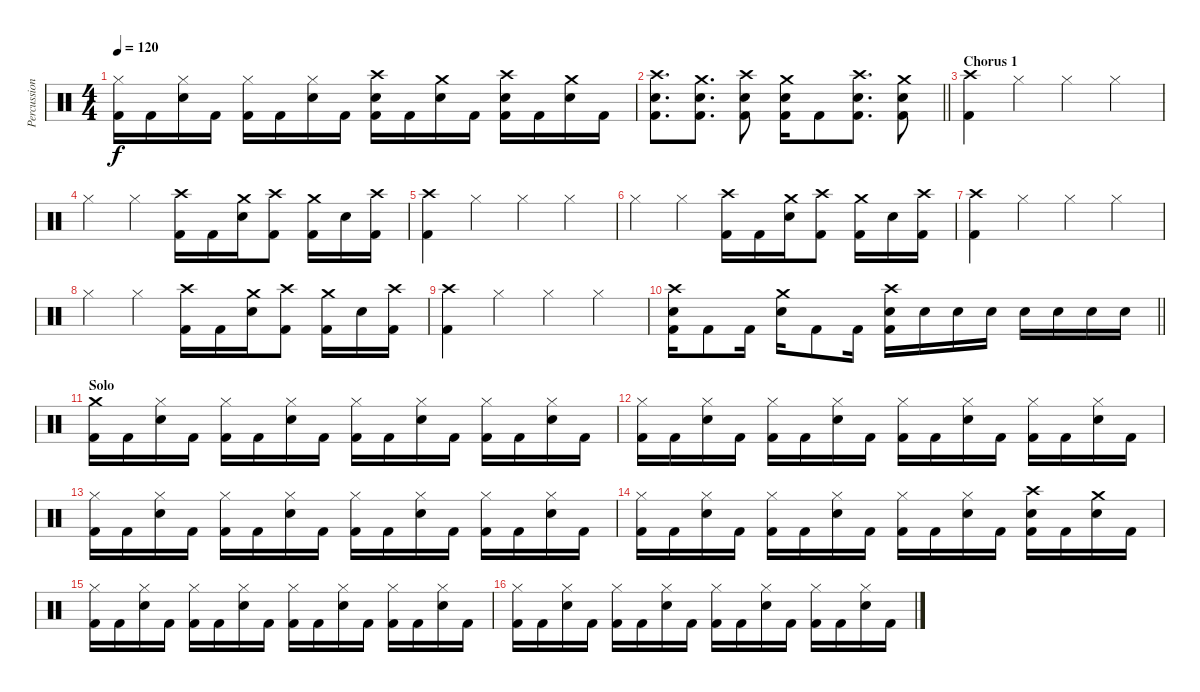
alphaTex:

\track ("Percussion" "Percussion") {instrument percussion}
\staff {score}
\articulation defaults
\ts (4 4)
\tempo 120
\clef neutral
\ks c
("Hi-Hat (closed)" "Kick (hit) 2").16{dy f} "Kick (hit) 2".16 ("Electric Snare (hit)" "Hi-Hat (closed)").16 "Kick (hit) 2".16 ("Hi-Hat (closed)" "Kick (hit) 2").16 "Kick (hit) 2".16 ("Electric Snare (hit)" "Hi-Hat (closed)").16 "Kick (hit) 2".16 ("Crash high (hit)" "Electric Snare (hit)" "Kick (hit) 2").16 "Kick (hit) 2".16 ("Crash medium (hit)" "Electric Snare (hit)").16 "Kick (hit) 2".16 ("Crash high (hit)" "Electric Snare (hit)" "Kick (hit) 2").16 "Kick (hit) 2".16 ("Crash medium (hit)" "Electric Snare (hit)").16 "Kick (hit) 2".16 |
\barLineRight lightlight
("Crash high (hit)" "Electric Snare (hit)" "Kick (hit) 2").8{d} ("Crash medium (hit)" "Electric Snare (hit)" "Kick (hit) 2").8{d} ("Crash high (hit)" "Electric Snare (hit)" "Kick (hit) 2").8 ("Crash medium (hit)" "Electric Snare (hit)" "Kick (hit) 2").16 "Kick (hit) 2".8 ("Crash high (hit)" "Electric Snare (hit)" "Kick (hit) 2").8{d} ("Crash medium (hit)" "Electric Snare (hit)" "Kick (hit) 2").8 |
\section ("" "Chorus 1")
("Crash high (hit)" "Kick (hit) 2").4 "Hi-Hat (closed)".4 "Hi-Hat (closed)".4 "Hi-Hat (closed)".4 |
"Hi-Hat (closed)".4 "Hi-Hat (closed)".4 ("Crash high (hit)" "Kick (hit) 2").16 "Kick (hit) 2".16 ("Crash medium (hit)" "Electric Snare (hit)").16 ("Crash high (hit)" "Kick (hit) 2").8 ("Crash medium (hit)" "Kick (hit) 2").16 "Electric Snare (hit)".16 ("Crash high (hit)" "Kick (hit) 2").16 |
("Crash high (hit)" "Kick (hit) 2").4 "Hi-Hat (closed)".4 "Hi-Hat (closed)".4 "Hi-Hat (closed)".4 |
"Hi-Hat (closed)".4 "Hi-Hat (closed)".4 ("Crash high (hit)" "Kick (hit) 2").16 "Kick (hit) 2".16 ("Crash medium (hit)" "Electric Snare (hit)").16 ("Crash high (hit)" "Kick (hit) 2").8 ("Crash medium (hit)" "Kick (hit) 2").16 "Electric Snare (hit)".16 ("Crash high (hit)" "Kick (hit) 2").16 |
("Crash high (hit)" "Kick (hit) 2").4 "Hi-Hat (closed)".4 "Hi-Hat (closed)".4 "Hi-Hat (closed)".4 |
"Hi-Hat (closed)".4 "Hi-Hat (closed)".4 ("Crash high (hit)" "Kick (hit) 2").16 "Kick (hit) 2".16 ("Crash medium (hit)" "Electric Snare (hit)").16 ("Crash high (hit)" "Kick (hit) 2").8 ("Crash medium (hit)" "Kick (hit) 2").16 "Electric Snare (hit)".16 ("Crash high (hit)" "Kick (hit) 2").16 |
("Crash high (hit)" "Kick (hit) 2").4 "Hi-Hat (closed)".4 "Hi-Hat (closed)".4 "Hi-Hat (closed)".4 |
\barLineRight lightlight
("Crash high (hit)" "Electric Snare (hit)" "Kick (hit) 2").16 "Kick (hit) 2".8 "Kick (hit) 2".16 ("Crash medium (hit)" "Electric Snare (hit)").16 "Kick (hit) 2".8 "Kick (hit) 2".16 ("Crash high (hit)" "Electric Snare (hit)" "Kick (hit) 2").16 "Electric Snare (hit)".16 "Electric Snare (hit)".16 "Electric Snare (hit)".16 "Electric Snare (hit)".16 "Electric Snare (hit)".16 "Electric Snare (hit)".16 "Electric Snare (hit)".16 |
\section ("" "Solo")
("Crash medium (hit)" "Kick (hit) 2").16 "Kick (hit) 2".16 ("Electric Snare (hit)" "Hi-Hat (closed)").16 "Kick (hit) 2".16 ("Hi-Hat (closed)" "Kick (hit) 2").16 "Kick (hit) 2".16 ("Electric Snare (hit)" "Hi-Hat (closed)").16 "Kick (hit) 2".16 ("Hi-Hat (closed)" "Kick (hit) 2").16 "Kick (hit) 2".16 ("Electric Snare (hit)" "Hi-Hat (closed)").16 "Kick (hit) 2".16 ("Hi-Hat (closed)" "Kick (hit) 2").16 "Kick (hit) 2".16 ("Electric Snare (hit)" "Hi-Hat (closed)").16 "Kick (hit) 2".16 |
("Hi-Hat (closed)" "Kick (hit) 2").16 "Kick (hit) 2".16 ("Electric Snare (hit)" "Hi-Hat (closed)").16 "Kick (hit) 2".16 ("Hi-Hat (closed)" "Kick (hit) 2").16 "Kick (hit) 2".16 ("Electric Snare (hit)" "Hi-Hat (closed)").16 "Kick (hit) 2".16 ("Hi-Hat (closed)" "Kick (hit) 2").16 "Kick (hit) 2".16 ("Electric Snare (hit)" "Hi-Hat (closed)").16 "Kick (hit) 2".16 ("Hi-Hat (closed)" "Kick (hit) 2").16 "Kick (hit) 2".16 ("Electric Snare (hit)" "Hi-Hat (closed)").16 "Kick (hit) 2".16 |
("Hi-Hat (closed)" "Kick (hit) 2").16 "Kick (hit) 2".16 ("Electric Snare (hit)" "Hi-Hat (closed)").16 "Kick (hit) 2".16 ("Hi-Hat (closed)" "Kick (hit) 2").16 "Kick (hit) 2".16 ("Electric Snare (hit)" "Hi-Hat (closed)").16 "Kick (hit) 2".16 ("Hi-Hat (closed)" "Kick (hit) 2").16 "Kick (hit) 2".16 ("Electric Snare (hit)" "Hi-Hat (closed)").16 "Kick (hit) 2".16 ("Hi-Hat (closed)" "Kick (hit) 2").16 "Kick (hit) 2".16 ("Electric Snare (hit)" "Hi-Hat (closed)").16 "Kick (hit) 2".16 |
("Hi-Hat (closed)" "Kick (hit) 2").16 "Kick (hit) 2".16 ("Electric Snare (hit)" "Hi-Hat (closed)").16 "Kick (hit) 2".16 ("Hi-Hat (closed)" "Kick (hit) 2").16 "Kick (hit) 2".16 ("Electric Snare (hit)" "Hi-Hat (closed)").16 "Kick (hit) 2".16 ("Hi-Hat (closed)" "Kick (hit) 2").16 "Kick (hit) 2".16 ("Electric Snare (hit)" "Hi-Hat (closed)").16 "Kick (hit) 2".16 ("Crash high (hit)" "Electric Snare (hit)" "Kick (hit) 2").16 "Kick (hit) 2".16 ("Crash medium (hit)" "Electric Snare (hit)").16 "Kick (hit) 2".16 |
("Hi-Hat (closed)" "Kick (hit) 2").16 "Kick (hit) 2".16 ("Electric Snare (hit)" "Hi-Hat (closed)").16 "Kick (hit) 2".16 ("Hi-Hat (closed)" "Kick (hit) 2").16 "Kick (hit) 2".16 ("Electric Snare (hit)" "Hi-Hat (closed)").16 "Kick (hit) 2".16 ("Hi-Hat (closed)" "Kick (hit) 2").16 "Kick (hit) 2".16 ("Electric Snare (hit)" "Hi-Hat (closed)").16 "Kick (hit) 2".16 ("Hi-Hat (closed)" "Kick (hit) 2").16 "Kick (hit) 2".16 ("Electric Snare (hit)" "Hi-Hat (closed)").16 "Kick (hit) 2".16 |
("Hi-Hat (closed)" "Kick (hit) 2").16 "Kick (hit) 2".16 ("Electric Snare (hit)" "Hi-Hat (closed)").16 "Kick (hit) 2".16 ("Hi-Hat (closed)" "Kick (hit) 2").16 "Kick (hit) 2".16 ("Electric Snare (hit)" "Hi-Hat (closed)").16 "Kick (hit) 2".16 ("Hi-Hat (closed)" "Kick (hit) 2").16 "Kick (hit) 2".16 ("Electric Snare (hit)" "Hi-Hat (closed)").16 "Kick (hit) 2".16 ("Hi-Hat (closed)" "Kick (hit) 2").16 "Kick (hit) 2".16 ("Electric Snare (hit)" "Hi-Hat (closed)").16 "Kick (hit) 2".16
